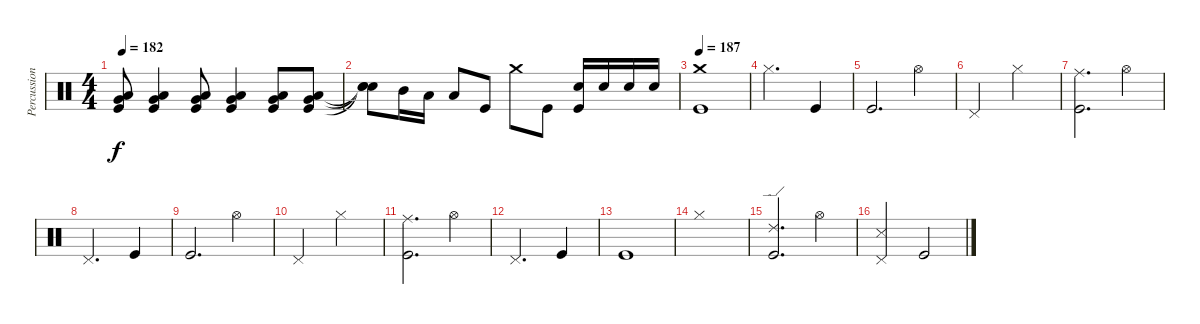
\track ("Percussion" "Percussion") {instrument percussion}
\staff {score}
\articulation defaults
\ts (4 4)
\tempo 182
\clef neutral
\ks c
("Very Low Tom (hit)" "Low Tom (hit)" "Kick (hit)").8{dy f} ("Very Low Tom (hit)" "Low Tom (hit)" "Kick (hit)").4 ("Very Low Tom (hit)" "Low Tom (hit)" "Kick (hit)").8 ("Very Low Tom (hit)" "Low Tom (hit)" "Kick (hit)").4 ("Low Floor Tom (hit)" "Very Low Tom (hit)" "Kick (hit)").8 ("Low Floor Tom (hit)" "Very Low Tom (hit)" "Kick (hit)").8 |
("Snare (hit)"{t} "Snare (hit)"{t} "Snare (hit)"{t}).8 "Mid Tom (hit)".16 "Low Tom (hit)".16 "Low Tom (hit)".8 "Kick (hit)".8 "Crash medium (hit)".8 "Kick (hit)".8 ("Snare (hit) 2" "Kick (hit)").16 "Snare (hit) 2".16 "Snare (hit) 2".16 "Snare (hit) 2".16 |
\tempo 187
("Crash medium (hit)" "Kick (hit)").1 |
"Hi-Hat (closed)".2{d} "Kick (hit)".4 |
"Kick (hit)".2{d} "Hi-Hat (open)".4 |
"Pedal Hi-Hat (hit)".2 "Hi-Hat (closed)".2 |
("Ride (middle)" "Kick (hit)").2{d} "Hi-Hat (open)".4 |
"Pedal Hi-Hat (hit)".2{d} "Kick (hit)".4 |
"Kick (hit)".2{d} "Hi-Hat (open)".4 |
"Pedal Hi-Hat (hit)".2 "Hi-Hat (closed)".2 |
("Ride (middle)" "Kick (hit)").2{d} "Hi-Hat (open)".4 |
"Pedal Hi-Hat (hit)".2{d} "Kick (hit)".4 |
"Kick (hit)".1 |
"Hi-Hat (closed)".1 |
("Ride (edge) 2" "Kick (hit)").2{d} "Hi-Hat (open)".4 |
("Pedal Hi-Hat (hit)" "Snare (side stick) 3").2 "Kick (hit)".2
